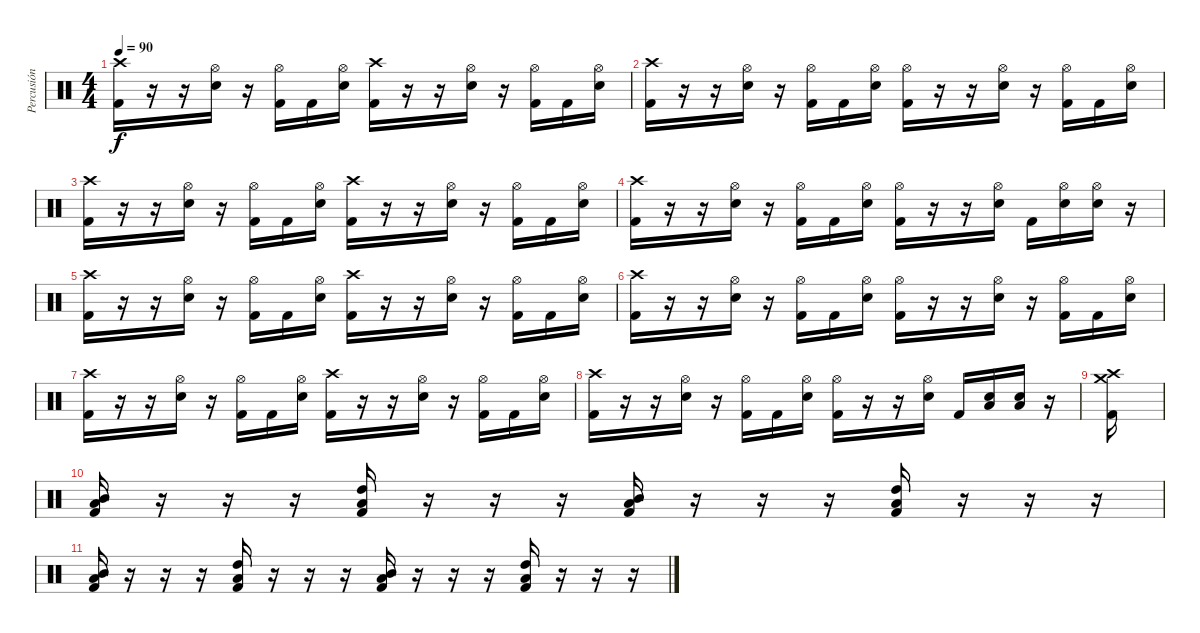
\track ("Percusión" "Percusión") {instrument percussion}
\staff {score}
\articulation defaults
\ts (4 4)
\tempo 90
\clef neutral
\ks c
("Crash high (hit)" "Kick (hit) 2").16{dy f} r.16 r.16 ("Hi-Hat (open)" "Electric Snare (hit)").16 r.16 ("Hi-Hat (open)" "Kick (hit) 2").16 "Kick (hit) 2".16 ("Hi-Hat (open)" "Electric Snare (hit)").16 ("Crash high (hit)" "Kick (hit) 2").16 r.16 r.16 ("Hi-Hat (open)" "Electric Snare (hit)").16 r.16 ("Hi-Hat (open)" "Kick (hit) 2").16 "Kick (hit) 2".16 ("Hi-Hat (open)" "Electric Snare (hit)").16 |
("Crash high (hit)" "Kick (hit) 2").16 r.16 r.16 ("Hi-Hat (open)" "Electric Snare (hit)").16 r.16 ("Hi-Hat (open)" "Kick (hit) 2").16 "Kick (hit) 2".16 ("Hi-Hat (open)" "Electric Snare (hit)").16 ("Hi-Hat (open)" "Kick (hit) 2").16 r.16 r.16 ("Hi-Hat (open)" "Electric Snare (hit)").16 r.16 ("Hi-Hat (open)" "Kick (hit) 2").16 "Kick (hit) 2".16 ("Hi-Hat (open)" "Electric Snare (hit)").16 |
("Crash high (hit)" "Kick (hit) 2").16 r.16 r.16 ("Hi-Hat (open)" "Electric Snare (hit)").16 r.16 ("Hi-Hat (open)" "Kick (hit) 2").16 "Kick (hit) 2".16 ("Hi-Hat (open)" "Electric Snare (hit)").16 ("Crash high (hit)" "Kick (hit) 2").16 r.16 r.16 ("Hi-Hat (open)" "Electric Snare (hit)").16 r.16 ("Hi-Hat (open)" "Kick (hit) 2").16 "Kick (hit) 2".16 ("Hi-Hat (open)" "Electric Snare (hit)").16 |
("Crash high (hit)" "Kick (hit) 2").16 r.16 r.16 ("Hi-Hat (open)" "Electric Snare (hit)").16 r.16 ("Hi-Hat (open)" "Kick (hit) 2").16 "Kick (hit) 2".16 ("Hi-Hat (open)" "Electric Snare (hit)").16 ("Hi-Hat (open)" "Kick (hit) 2").16 r.16 r.16 ("Hi-Hat (open)" "Electric Snare (hit)").16 "Kick (hit) 2".16 ("Hi-Hat (open)" "Electric Snare (hit)").16 ("Hi-Hat (open)" "Electric Snare (hit)").16 r.16 |
("Crash high (hit)" "Kick (hit) 2").16 r.16 r.16 ("Hi-Hat (open)" "Electric Snare (hit)").16 r.16 ("Hi-Hat (open)" "Kick (hit) 2").16 "Kick (hit) 2".16 ("Hi-Hat (open)" "Electric Snare (hit)").16 ("Crash high (hit)" "Kick (hit) 2").16 r.16 r.16 ("Hi-Hat (open)" "Electric Snare (hit)").16 r.16 ("Hi-Hat (open)" "Kick (hit) 2").16 "Kick (hit) 2".16 ("Hi-Hat (open)" "Electric Snare (hit)").16 |
("Crash high (hit)" "Kick (hit) 2").16 r.16 r.16 ("Hi-Hat (open)" "Electric Snare (hit)").16 r.16 ("Hi-Hat (open)" "Kick (hit) 2").16 "Kick (hit) 2".16 ("Hi-Hat (open)" "Electric Snare (hit)").16 ("Hi-Hat (open)" "Kick (hit) 2").16 r.16 r.16 ("Hi-Hat (open)" "Electric Snare (hit)").16 r.16 ("Hi-Hat (open)" "Kick (hit) 2").16 "Kick (hit) 2".16 ("Hi-Hat (open)" "Electric Snare (hit)").16 |
("Crash high (hit)" "Kick (hit) 2").16 r.16 r.16 ("Hi-Hat (open)" "Electric Snare (hit)").16 r.16 ("Hi-Hat (open)" "Kick (hit) 2").16 "Kick (hit) 2".16 ("Hi-Hat (open)" "Electric Snare (hit)").16 ("Crash high (hit)" "Kick (hit) 2").16 r.16 r.16 ("Hi-Hat (open)" "Electric Snare (hit)").16 r.16 ("Hi-Hat (open)" "Kick (hit) 2").16 "Kick (hit) 2".16 ("Hi-Hat (open)" "Electric Snare (hit)").16 |
("Crash high (hit)" "Kick (hit) 2").16 r.16 r.16 ("Hi-Hat (open)" "Electric Snare (hit)").16 r.16 ("Hi-Hat (open)" "Kick (hit) 2").16 "Kick (hit) 2".16 ("Hi-Hat (open)" "Electric Snare (hit)").16 ("Hi-Hat (open)" "Kick (hit) 2").16 r.16 r.16 ("Hi-Hat (open)" "Electric Snare (hit)").16 "Kick (hit) 2".16 ("Low Tom (hit)" "Electric Snare (hit)").16 ("Low Tom (hit)" "Electric Snare (hit)").16 r.16 |
("Crash high (hit)" "Crash medium (hit)" "Kick (hit) 2").16 |
("Mid Tom (hit)" "Low Tom (hit)" "Kick (hit) 2").16 r.16 r.16 r.16 ("High Tom (hit)" "Low Tom (hit)" "Kick (hit) 2").16 r.16 r.16 r.16 ("Mid Tom (hit)" "Low Tom (hit)" "Kick (hit) 2").16 r.16 r.16 r.16 ("High Tom (hit)" "Low Tom (hit)" "Kick (hit) 2").16 r.16 r.16 r.16 |
("Mid Tom (hit)" "Low Tom (hit)" "Kick (hit) 2").16 r.16 r.16 r.16 ("High Tom (hit)" "Low Tom (hit)" "Kick (hit) 2").16 r.16 r.16 r.16 ("Mid Tom (hit)" "Low Tom (hit)" "Kick (hit) 2").16 r.16 r.16 r.16 ("High Tom (hit)" "Low Tom (hit)" "Kick (hit) 2").16 r.16 r.16 r.16
